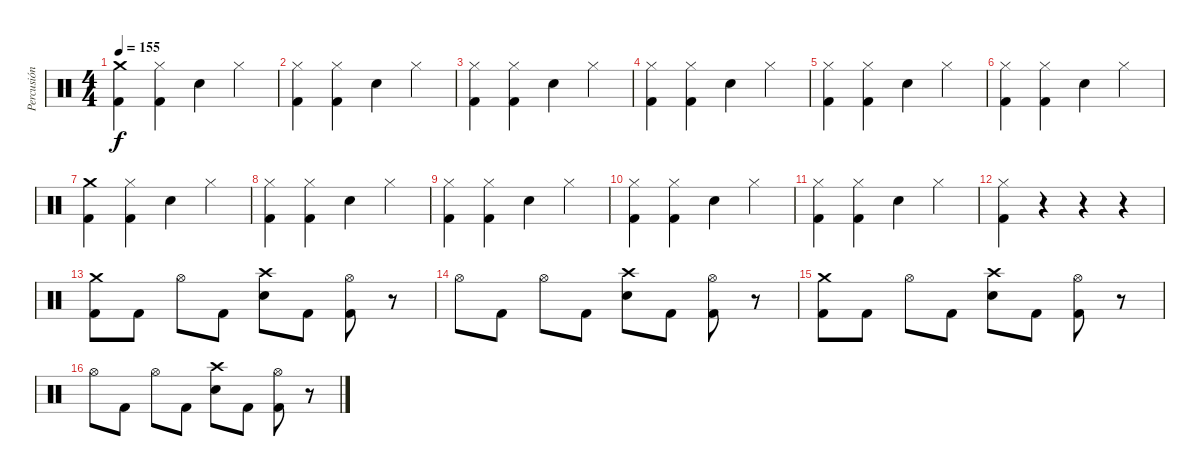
\track ("Percusión" "Percusión") {instrument percussion}
\staff {score}
\articulation defaults
\ts (4 4)
\tempo 155
\clef neutral
\ks c
("Crash medium (hit)" "Kick (hit) 2").4{dy f} ("Hi-Hat (closed)" "Kick (hit) 2").4 "Electric Snare (hit)".4 "Hi-Hat (closed)".4 |
("Hi-Hat (closed)" "Kick (hit) 2").4 ("Hi-Hat (closed)" "Kick (hit) 2").4 "Electric Snare (hit)".4 "Hi-Hat (closed)".4 |
("Hi-Hat (closed)" "Kick (hit) 2").4 ("Hi-Hat (closed)" "Kick (hit) 2").4 "Electric Snare (hit)".4 "Hi-Hat (closed)".4 |
("Hi-Hat (closed)" "Kick (hit) 2").4 ("Hi-Hat (closed)" "Kick (hit) 2").4 "Electric Snare (hit)".4 "Hi-Hat (closed)".4 |
("Hi-Hat (closed)" "Kick (hit) 2").4 ("Hi-Hat (closed)" "Kick (hit) 2").4 "Electric Snare (hit)".4 "Hi-Hat (closed)".4 |
("Hi-Hat (closed)" "Kick (hit) 2").4 ("Hi-Hat (closed)" "Kick (hit) 2").4 "Electric Snare (hit)".4 "Hi-Hat (closed)".4 |
("Crash medium (hit)" "Kick (hit) 2").4 ("Hi-Hat (closed)" "Kick (hit) 2").4 "Electric Snare (hit)".4 "Hi-Hat (closed)".4 |
("Hi-Hat (closed)" "Kick (hit) 2").4 ("Hi-Hat (closed)" "Kick (hit) 2").4 "Electric Snare (hit)".4 "Hi-Hat (closed)".4 |
("Hi-Hat (closed)" "Kick (hit) 2").4 ("Hi-Hat (closed)" "Kick (hit) 2").4 "Electric Snare (hit)".4 "Hi-Hat (closed)".4 |
("Hi-Hat (closed)" "Kick (hit) 2").4 ("Hi-Hat (closed)" "Kick (hit) 2").4 "Electric Snare (hit)".4 "Hi-Hat (closed)".4 |
("Hi-Hat (closed)" "Kick (hit) 2").4 ("Hi-Hat (closed)" "Kick (hit) 2").4 "Electric Snare (hit)".4 "Hi-Hat (closed)".4 |
("Hi-Hat (closed)" "Kick (hit) 2").4 r.4 r.4 r.4 |
("Crash medium (hit)" "Kick (hit) 2").8 "Kick (hit) 2".8 "Hi-Hat (open)".8 "Kick (hit) 2".8 ("Crash high (hit)" "Electric Snare (hit)").8 "Kick (hit) 2".8 ("Hi-Hat (open)" "Kick (hit) 2").8 r.8 |
"Hi-Hat (open)".8 "Kick (hit) 2".8 "Hi-Hat (open)".8 "Kick (hit) 2".8 ("Crash high (hit)" "Electric Snare (hit)").8 "Kick (hit) 2".8 ("Hi-Hat (open)" "Kick (hit) 2").8 r.8 |
("Crash medium (hit)" "Kick (hit) 2").8 "Kick (hit) 2".8 "Hi-Hat (open)".8 "Kick (hit) 2".8 ("Crash high (hit)" "Electric Snare (hit)").8 "Kick (hit) 2".8 ("Hi-Hat (open)" "Kick (hit) 2").8 r.8 |
"Hi-Hat (open)".8 "Kick (hit) 2".8 "Hi-Hat (open)".8 "Kick (hit) 2".8 ("Crash high (hit)" "Electric Snare (hit)").8 "Kick (hit) 2".8 ("Hi-Hat (open)" "Kick (hit) 2").8 r.8
